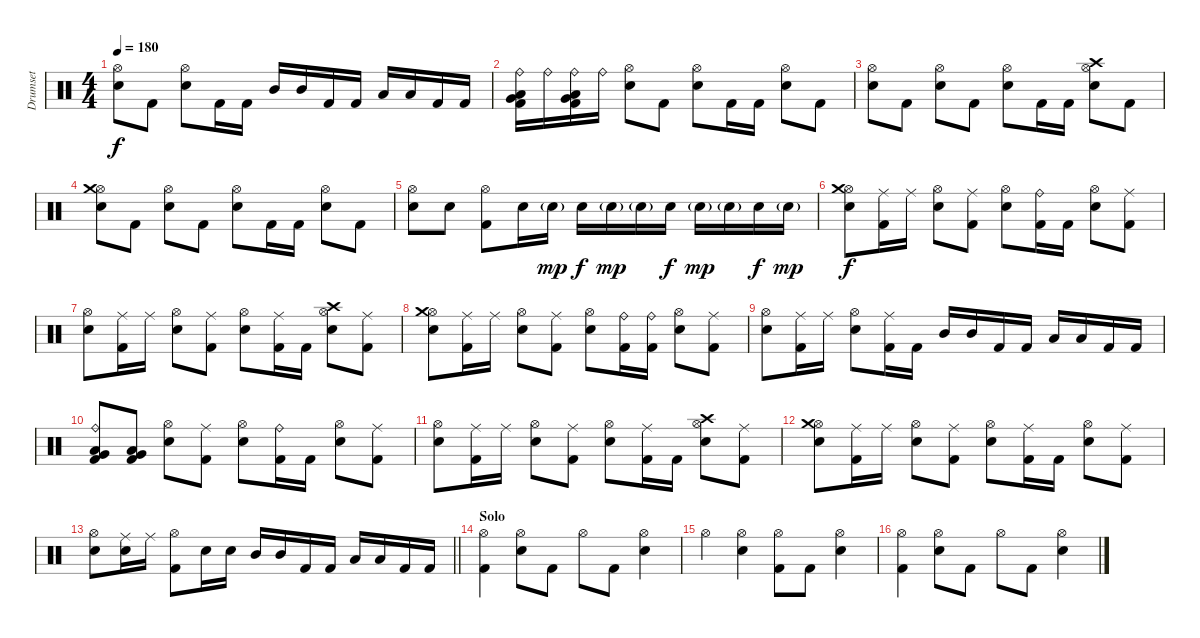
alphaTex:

\track ("Drumset" "Drumset") {instrument percussion}
\staff {score}
\articulation defaults
\ts (4 4)
\tempo 180
\clef neutral
\ks c
("Hi-Hat (open)" "Snare (hit) 2").8{dy f} "Kick (hit) 2".8 ("Hi-Hat (open)" "Snare (hit) 2").8 "Kick (hit) 2".16 "Kick (hit) 2".16 "Mid Tom (hit)".16 "Mid Tom (hit)".16 "Kick (hit) 2".16 "Kick (hit) 2".16 "Low Tom (hit)".16 "Low Tom (hit)".16 "Kick (hit) 2".16 "Kick (hit) 2".16 |
("Ride (bell)" "Low Tom (hit)" "Very Low Tom (hit)" "Kick (hit) 2").16 "Ride (bell)".16 ("Ride (bell)" "Low Tom (hit)" "Very Low Tom (hit)" "Kick (hit) 2").16 "Ride (bell)".16 ("Hi-Hat (open)" "Snare (hit) 2").8 "Kick (hit) 2".8 ("Hi-Hat (open)" "Snare (hit) 2").8 "Kick (hit) 2".16 "Kick (hit) 2".16 ("Hi-Hat (open)" "Snare (hit) 2").8 "Kick (hit) 2".8 |
("Hi-Hat (open)" "Snare (hit) 2").8 "Kick (hit) 2".8 ("Hi-Hat (open)" "Snare (hit) 2").8 "Kick (hit) 2".8 ("Hi-Hat (open)" "Snare (hit) 2").8 "Kick (hit) 2".16 "Kick (hit) 2".16 ("Hi-Hat (open)" "Crash high (hit)" "Snare (hit) 2").8 "Kick (hit) 2".8 |
("Hi-Hat (open)" "Crash medium (hit)" "Snare (hit) 2").8 "Kick (hit) 2".8 ("Hi-Hat (open)" "Snare (hit) 2").8 "Kick (hit) 2".8 ("Hi-Hat (open)" "Snare (hit) 2").8 "Kick (hit) 2".16 "Kick (hit) 2".16 ("Hi-Hat (open)" "Snare (hit) 2").8 "Kick (hit) 2".8 |
("Hi-Hat (open)" "Snare (hit) 2").8 "Snare (hit) 2".8 ("Hi-Hat (open)" "Kick (hit) 2").8 "Snare (hit) 2".16 "Snare (hit) 2"{g}.16{dy mp} "Snare (hit) 2".16{dy f} "Snare (hit) 2"{g}.16{dy mp} "Snare (hit) 2"{g}.16 "Snare (hit) 2".16{dy f} "Snare (hit) 2"{g}.16{dy mp} "Snare (hit) 2"{g}.16 "Snare (hit) 2".16{dy f} "Snare (hit) 2"{g}.16{dy mp} |
("Hi-Hat (open)" "Crash medium (hit)" "Snare (hit) 2").8{dy f} ("Ride (middle)" "Kick (hit) 2").16 "Ride (middle)".16 ("Hi-Hat (open)" "Snare (hit) 2").8 ("Ride (middle)" "Kick (hit) 2").8 ("Hi-Hat (open)" "Snare (hit) 2").8 ("Ride (bell)" "Kick (hit) 2").16 "Kick (hit) 2".16 ("Hi-Hat (open)" "Snare (hit) 2").8 ("Ride (middle)" "Kick (hit) 2").8 |
("Hi-Hat (open)" "Snare (hit) 2").8 ("Ride (middle)" "Kick (hit) 2").16 "Ride (middle)".16 ("Hi-Hat (open)" "Snare (hit) 2").8 ("Ride (middle)" "Kick (hit) 2").8 ("Hi-Hat (open)" "Snare (hit) 2").8 ("Ride (middle)" "Kick (hit) 2").16 "Kick (hit) 2".16 ("Hi-Hat (open)" "Crash high (hit)" "Snare (hit) 2").8 ("Ride (middle)" "Kick (hit) 2").8 |
("Hi-Hat (open)" "Crash medium (hit)" "Snare (hit) 2").8 ("Ride (middle)" "Kick (hit) 2").16 "Ride (middle)".16 ("Hi-Hat (open)" "Snare (hit) 2").8 ("Ride (middle)" "Kick (hit) 2").8 ("Hi-Hat (open)" "Snare (hit) 2").8 ("Ride (bell)" "Kick (hit) 2").16 ("Ride (bell)" "Kick (hit) 2").16 ("Hi-Hat (open)" "Snare (hit) 2").8 ("Ride (middle)" "Kick (hit) 2").8 |
("Hi-Hat (open)" "Snare (hit) 2").8 ("Ride (middle)" "Kick (hit) 2").16 "Ride (middle)".16 ("Hi-Hat (open)" "Snare (hit) 2").8 ("Ride (middle)" "Kick (hit) 2").16 "Kick (hit) 2".16 "Mid Tom (hit)".16 "Mid Tom (hit)".16 "Kick (hit) 2".16 "Kick (hit) 2".16 "Low Tom (hit)".16 "Low Tom (hit)".16 "Kick (hit) 2".16 "Kick (hit) 2".16 |
("Ride (bell)" "Low Tom (hit)" "Very Low Tom (hit)" "Kick (hit) 2").8 ("Low Tom (hit)" "Very Low Tom (hit)" "Kick (hit) 2").8 ("Hi-Hat (open)" "Snare (hit) 2").8 ("Ride (middle)" "Kick (hit) 2").8 ("Hi-Hat (open)" "Snare (hit) 2").8 ("Ride (bell)" "Kick (hit) 2").16 "Kick (hit) 2".16 ("Hi-Hat (open)" "Snare (hit) 2").8 ("Ride (middle)" "Kick (hit) 2").8 |
("Hi-Hat (open)" "Snare (hit) 2").8 ("Ride (middle)" "Kick (hit) 2").16 "Ride (middle)".16 ("Hi-Hat (open)" "Snare (hit) 2").8 ("Ride (middle)" "Kick (hit) 2").8 ("Hi-Hat (open)" "Snare (hit) 2").8 ("Ride (middle)" "Kick (hit) 2").16 "Kick (hit) 2".16 ("Hi-Hat (open)" "Crash high (hit)" "Snare (hit) 2").8 ("Ride (middle)" "Kick (hit) 2").8 |
("Hi-Hat (open)" "Crash medium (hit)" "Snare (hit) 2").8 ("Ride (middle)" "Kick (hit) 2").16 "Ride (middle)".16 ("Hi-Hat (open)" "Snare (hit) 2").8 ("Ride (middle)" "Kick (hit) 2").8 ("Hi-Hat (open)" "Snare (hit) 2").8 ("Ride (middle)" "Kick (hit) 2").16 "Kick (hit) 2".16 ("Hi-Hat (open)" "Snare (hit) 2").8 ("Ride (middle)" "Kick (hit) 2").8 |
\barLineRight lightlight
("Hi-Hat (open)" "Snare (hit) 2").8 ("Ride (middle)" "Snare (hit) 2").16 "Ride (middle)".16 ("Hi-Hat (open)" "Kick (hit) 2").8 "Snare (hit) 2".16 "Snare (hit) 2".16 "Mid Tom (hit)".16 "Mid Tom (hit)".16 "Kick (hit) 2".16 "Kick (hit) 2".16 "Low Tom (hit)".16 "Low Tom (hit)".16 "Kick (hit) 2".16 "Kick (hit) 2".16 |
\section ("" "Solo")
("Hi-Hat (open)" "Kick (hit) 2").4 ("Hi-Hat (open)" "Snare (hit) 2").8 "Kick (hit) 2".8 "Hi-Hat (open)".8 "Kick (hit) 2".8 ("Hi-Hat (open)" "Snare (hit) 2").4 |
"Hi-Hat (open)".4 ("Hi-Hat (open)" "Snare (hit) 2").4 ("Hi-Hat (open)" "Kick (hit) 2").8 "Kick (hit) 2".8 ("Hi-Hat (open)" "Snare (hit) 2").4 |
("Hi-Hat (open)" "Kick (hit) 2").4 ("Hi-Hat (open)" "Snare (hit) 2").8 "Kick (hit) 2".8 "Hi-Hat (open)".8 "Kick (hit) 2".8 ("Hi-Hat (open)" "Snare (hit) 2").4
